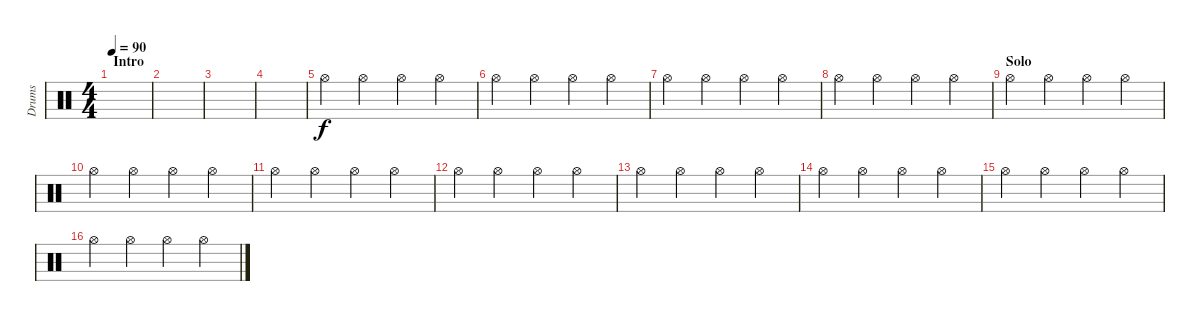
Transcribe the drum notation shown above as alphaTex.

\track ("Drums" "Drums") {instrument percussion}
\staff {score}
\articulation defaults
\ts (4 4)
\section ("" "Intro")
\tempo 90
\clef neutral
\ks c
|
|
|
|
"Hi-Hat (open)".4 "Hi-Hat (open)".4 "Hi-Hat (open)".4 "Hi-Hat (open)".4 |
"Hi-Hat (open)".4 "Hi-Hat (open)".4 "Hi-Hat (open)".4 "Hi-Hat (open)".4 |
"Hi-Hat (open)".4 "Hi-Hat (open)".4 "Hi-Hat (open)".4 "Hi-Hat (open)".4 |
"Hi-Hat (open)".4 "Hi-Hat (open)".4 "Hi-Hat (open)".4 "Hi-Hat (open)".4 |
\section ("" "Solo")
"Hi-Hat (open)".4 "Hi-Hat (open)".4 "Hi-Hat (open)".4 "Hi-Hat (open)".4 |
"Hi-Hat (open)".4 "Hi-Hat (open)".4 "Hi-Hat (open)".4 "Hi-Hat (open)".4 |
"Hi-Hat (open)".4 "Hi-Hat (open)".4 "Hi-Hat (open)".4 "Hi-Hat (open)".4 |
"Hi-Hat (open)".4 "Hi-Hat (open)".4 "Hi-Hat (open)".4 "Hi-Hat (open)".4 |
"Hi-Hat (open)".4 "Hi-Hat (open)".4 "Hi-Hat (open)".4 "Hi-Hat (open)".4 |
"Hi-Hat (open)".4 "Hi-Hat (open)".4 "Hi-Hat (open)".4 "Hi-Hat (open)".4 |
"Hi-Hat (open)".4 "Hi-Hat (open)".4 "Hi-Hat (open)".4 "Hi-Hat (open)".4 |
"Hi-Hat (open)".4 "Hi-Hat (open)".4 "Hi-Hat (open)".4 "Hi-Hat (open)".4
